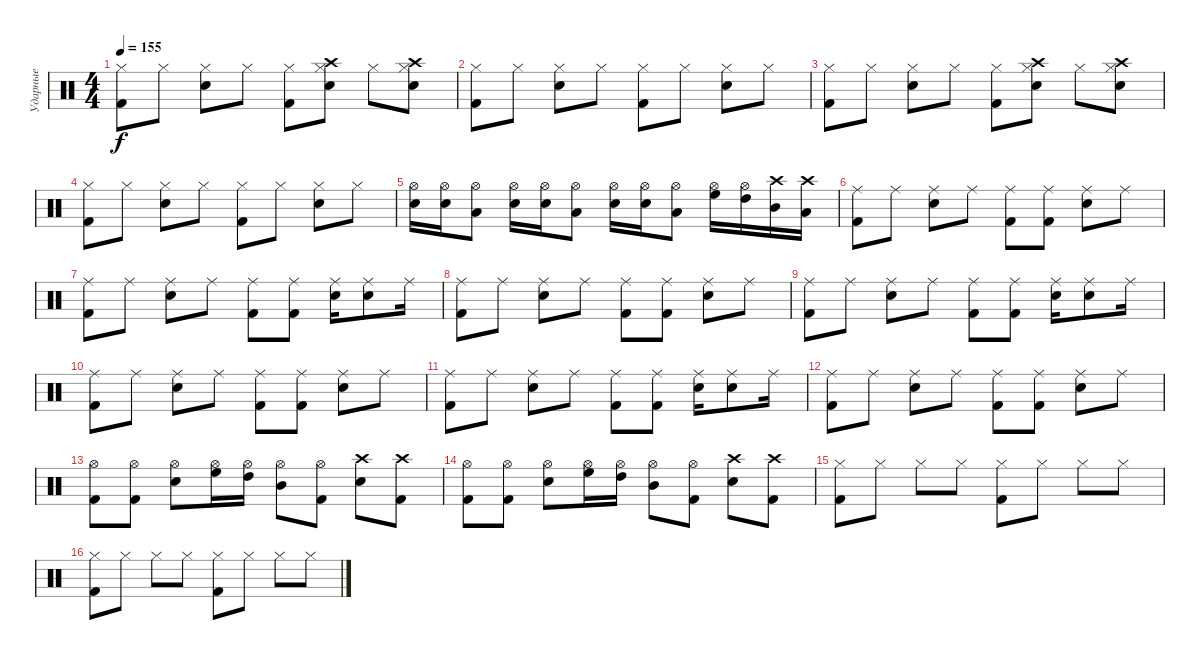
\track ("Ударные" "Ударные") {solo instrument percussion}
\staff {score}
\articulation defaults
\ts (4 4)
\tempo 155
\clef neutral
\ks c
("Hi-Hat (closed)" "Kick (hit) 2").8{dy f} "Hi-Hat (closed)".8 ("Hi-Hat (closed)" "Snare (hit) 2").8 "Hi-Hat (closed)".8 ("Hi-Hat (closed)" "Kick (hit) 2").8 ("Hi-Hat (closed)" "Snare (hit) 2" "Crash high (hit)").8 "Hi-Hat (closed)".8 ("Hi-Hat (closed)" "Snare (hit) 2" "Crash high (hit)").8 |
("Hi-Hat (closed)" "Kick (hit) 2").8 "Hi-Hat (closed)".8 ("Hi-Hat (closed)" "Snare (hit) 2").8 "Hi-Hat (closed)".8 ("Hi-Hat (closed)" "Kick (hit) 2").8 "Hi-Hat (closed)".8 ("Hi-Hat (closed)" "Snare (hit) 2").8 "Hi-Hat (closed)".8 |
("Hi-Hat (closed)" "Kick (hit) 2").8 "Hi-Hat (closed)".8 ("Hi-Hat (closed)" "Snare (hit) 2").8 "Hi-Hat (closed)".8 ("Hi-Hat (closed)" "Kick (hit) 2").8 ("Hi-Hat (closed)" "Snare (hit) 2" "Crash high (hit)").8 "Hi-Hat (closed)".8 ("Hi-Hat (closed)" "Snare (hit) 2" "Crash high (hit)").8 |
("Hi-Hat (closed)" "Kick (hit) 2").8 "Hi-Hat (closed)".8 ("Hi-Hat (closed)" "Snare (hit) 2").8 "Hi-Hat (closed)".8 ("Hi-Hat (closed)" "Kick (hit) 2").8 "Hi-Hat (closed)".8 ("Hi-Hat (closed)" "Snare (hit) 2").8 "Hi-Hat (closed)".8 |
("Electric Snare (hit)" "Hi-Hat (open)").16 ("Snare (hit) 2" "Hi-Hat (open)").16 ("Low Tom (hit)" "Hi-Hat (open)").8 ("Electric Snare (hit)" "Hi-Hat (open)").16 ("Snare (hit) 2" "Hi-Hat (open)").16 ("Low Tom (hit)" "Hi-Hat (open)").8 ("Electric Snare (hit)" "Hi-Hat (open)").16 ("Snare (hit) 2" "Hi-Hat (open)").16 ("Low Tom (hit)" "Hi-Hat (open)").8 ("High Floor Tom (hit)" "Hi-Hat (open)").16 ("High Tom (hit)" "Hi-Hat (open)").16 ("Mid Tom (hit)" "Crash high (hit)").16 ("Low Tom (hit)" "Crash high (hit)").16 |
("Ride (middle)" "Kick (hit) 2").8 "Ride (middle)".8 ("Ride (middle)" "Snare (hit) 2").8 "Ride (middle)".8 ("Ride (middle)" "Kick (hit) 2").8 ("Ride (middle)" "Kick (hit) 2").8 ("Ride (middle)" "Snare (hit) 2").8 "Ride (middle)".8 |
("Ride (middle)" "Kick (hit) 2").8 "Ride (middle)".8 ("Ride (middle)" "Snare (hit) 2").8 "Ride (middle)".8 ("Ride (middle)" "Kick (hit) 2").8 ("Ride (middle)" "Kick (hit) 2").8 ("Ride (middle)" "Snare (hit) 2").16 ("Ride (middle)" "Snare (hit) 2").8 "Ride (middle)".16 |
("Ride (middle)" "Kick (hit) 2").8 "Ride (middle)".8 ("Ride (middle)" "Snare (hit) 2").8 "Ride (middle)".8 ("Ride (middle)" "Kick (hit) 2").8 ("Ride (middle)" "Kick (hit) 2").8 ("Ride (middle)" "Snare (hit) 2").8 "Ride (middle)".8 |
("Ride (middle)" "Kick (hit) 2").8 "Ride (middle)".8 ("Ride (middle)" "Snare (hit) 2").8 "Ride (middle)".8 ("Ride (middle)" "Kick (hit) 2").8 ("Ride (middle)" "Kick (hit) 2").8 ("Ride (middle)" "Snare (hit) 2").16 ("Ride (middle)" "Snare (hit) 2").8 "Ride (middle)".16 |
("Ride (middle)" "Kick (hit) 2").8 "Ride (middle)".8 ("Ride (middle)" "Snare (hit) 2").8 "Ride (middle)".8 ("Ride (middle)" "Kick (hit) 2").8 ("Ride (middle)" "Kick (hit) 2").8 ("Ride (middle)" "Snare (hit) 2").8 "Ride (middle)".8 |
("Ride (middle)" "Kick (hit) 2").8 "Ride (middle)".8 ("Ride (middle)" "Snare (hit) 2").8 "Ride (middle)".8 ("Ride (middle)" "Kick (hit) 2").8 ("Ride (middle)" "Kick (hit) 2").8 ("Ride (middle)" "Snare (hit) 2").16 ("Ride (middle)" "Snare (hit) 2").8 "Ride (middle)".16 |
("Ride (middle)" "Kick (hit) 2").8 "Ride (middle)".8 ("Ride (middle)" "Snare (hit) 2").8 "Ride (middle)".8 ("Ride (middle)" "Kick (hit) 2").8 ("Ride (middle)" "Kick (hit) 2").8 ("Ride (middle)" "Snare (hit) 2").8 "Ride (middle)".8 |
("Kick (hit) 2" "Hi-Hat (open)").8 ("Kick (hit) 2" "Hi-Hat (open)").8 ("Snare (hit) 2" "Hi-Hat (open)").8 ("High Floor Tom (hit)" "Hi-Hat (open)").16 ("High Tom (hit)" "Hi-Hat (open)").16 ("Mid Tom (hit)" "Hi-Hat (open)").8 ("Kick (hit) 2" "Hi-Hat (open)").8 ("Snare (hit) 2" "Crash high (hit)").8 ("Kick (hit) 2" "Crash high (hit)").8 |
("Kick (hit) 2" "Hi-Hat (open)").8 ("Kick (hit) 2" "Hi-Hat (open)").8 ("Snare (hit) 2" "Hi-Hat (open)").8 ("High Floor Tom (hit)" "Hi-Hat (open)").16 ("High Tom (hit)" "Hi-Hat (open)").16 ("Mid Tom (hit)" "Hi-Hat (open)").8 ("Kick (hit) 2" "Hi-Hat (open)").8 ("Snare (hit) 2" "Crash high (hit)").8 ("Kick (hit) 2" "Crash high (hit)").8 |
("Hi-Hat (closed)" "Kick (hit) 2").8 "Hi-Hat (closed)".8 "Hi-Hat (closed)".8 "Hi-Hat (closed)".8 ("Hi-Hat (closed)" "Kick (hit) 2").8 "Hi-Hat (closed)".8 "Hi-Hat (closed)".8 "Hi-Hat (closed)".8 |
("Hi-Hat (closed)" "Kick (hit) 2").8 "Hi-Hat (closed)".8 "Hi-Hat (closed)".8 "Hi-Hat (closed)".8 ("Hi-Hat (closed)" "Kick (hit) 2").8 "Hi-Hat (closed)".8 "Hi-Hat (closed)".8 "Hi-Hat (closed)".8
